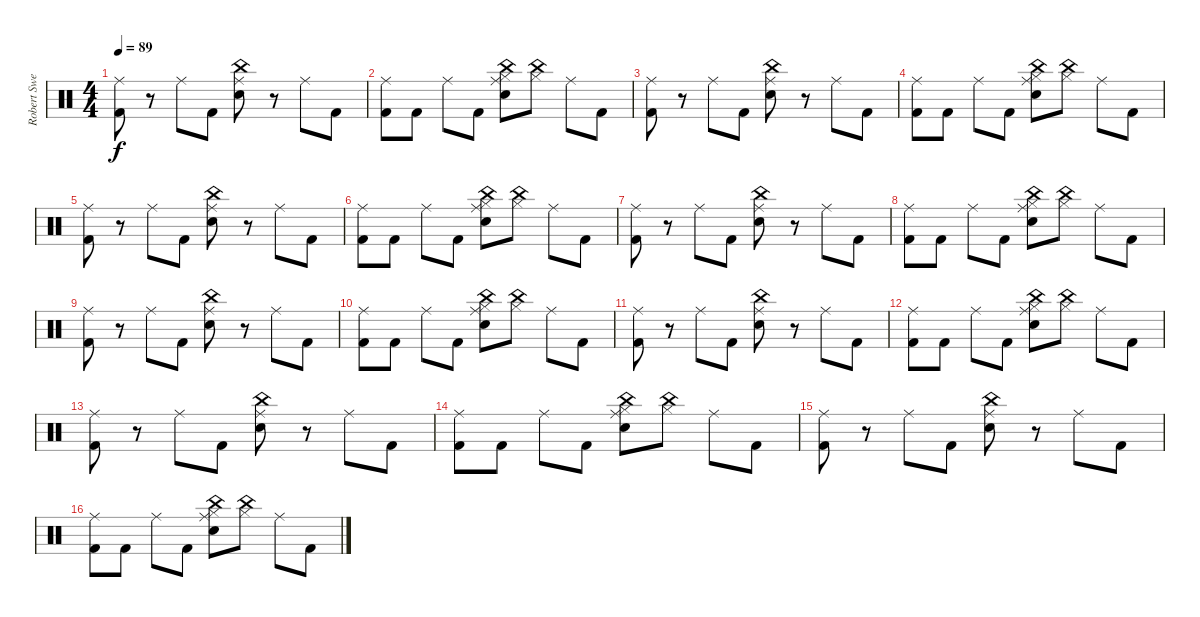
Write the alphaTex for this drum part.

\track ("Robert Sweet" "Robert Swe") {instrument percussion}
\staff {score}
\articulation defaults
\ts (4 4)
\tempo 89
\clef neutral
\ks c
("Ride (middle)" "Kick (hit) 2").8{dy f} r.8 "Ride (middle)".8 "Kick (hit) 2".8 ("Ride (middle)" "China (hit)" "Electric Snare (hit)").8 r.8 "Ride (middle)".8 "Kick (hit) 2".8 |
("Ride (middle)" "Kick (hit) 2").8 "Kick (hit) 2".8 "Ride (middle)".8 "Kick (hit) 2".8 ("Ride (middle)" "China (hit)" "Hi-Hat (closed)" "Electric Snare (hit)").8 ("China (hit)" "Hi-Hat (closed)").8 "Ride (middle)".8 "Kick (hit) 2".8 |
("Ride (middle)" "Kick (hit) 2").8 r.8 "Ride (middle)".8 "Kick (hit) 2".8 ("Ride (middle)" "China (hit)" "Electric Snare (hit)").8 r.8 "Ride (middle)".8 "Kick (hit) 2".8 |
("Ride (middle)" "Kick (hit) 2").8 "Kick (hit) 2".8 "Ride (middle)".8 "Kick (hit) 2".8 ("Ride (middle)" "China (hit)" "Hi-Hat (closed)" "Electric Snare (hit)").8 ("China (hit)" "Hi-Hat (closed)").8 "Ride (middle)".8 "Kick (hit) 2".8 |
("Ride (middle)" "Kick (hit) 2").8 r.8 "Ride (middle)".8 "Kick (hit) 2".8 ("Ride (middle)" "China (hit)" "Electric Snare (hit)").8 r.8 "Ride (middle)".8 "Kick (hit) 2".8 |
("Ride (middle)" "Kick (hit) 2").8 "Kick (hit) 2".8 "Ride (middle)".8 "Kick (hit) 2".8 ("Ride (middle)" "China (hit)" "Hi-Hat (closed)" "Electric Snare (hit)").8 ("China (hit)" "Hi-Hat (closed)").8 "Ride (middle)".8 "Kick (hit) 2".8 |
("Ride (middle)" "Kick (hit) 2").8 r.8 "Ride (middle)".8 "Kick (hit) 2".8 ("Ride (middle)" "China (hit)" "Electric Snare (hit)").8 r.8 "Ride (middle)".8 "Kick (hit) 2".8 |
("Ride (middle)" "Kick (hit) 2").8 "Kick (hit) 2".8 "Ride (middle)".8 "Kick (hit) 2".8 ("Ride (middle)" "China (hit)" "Hi-Hat (closed)" "Electric Snare (hit)").8 ("China (hit)" "Hi-Hat (closed)").8 "Ride (middle)".8 "Kick (hit) 2".8 |
("Ride (middle)" "Kick (hit) 2").8 r.8 "Ride (middle)".8 "Kick (hit) 2".8 ("Ride (middle)" "China (hit)" "Electric Snare (hit)").8 r.8 "Ride (middle)".8 "Kick (hit) 2".8 |
("Ride (middle)" "Kick (hit) 2").8 "Kick (hit) 2".8 "Ride (middle)".8 "Kick (hit) 2".8 ("Ride (middle)" "China (hit)" "Hi-Hat (closed)" "Electric Snare (hit)").8 ("China (hit)" "Hi-Hat (closed)").8 "Ride (middle)".8 "Kick (hit) 2".8 |
("Ride (middle)" "Kick (hit) 2").8 r.8 "Ride (middle)".8 "Kick (hit) 2".8 ("Ride (middle)" "China (hit)" "Electric Snare (hit)").8 r.8 "Ride (middle)".8 "Kick (hit) 2".8 |
("Ride (middle)" "Kick (hit) 2").8 "Kick (hit) 2".8 "Ride (middle)".8 "Kick (hit) 2".8 ("Ride (middle)" "China (hit)" "Hi-Hat (closed)" "Electric Snare (hit)").8 ("China (hit)" "Hi-Hat (closed)").8 "Ride (middle)".8 "Kick (hit) 2".8 |
("Ride (middle)" "Kick (hit) 2").8 r.8 "Ride (middle)".8 "Kick (hit) 2".8 ("Ride (middle)" "China (hit)" "Electric Snare (hit)").8 r.8 "Ride (middle)".8 "Kick (hit) 2".8 |
("Ride (middle)" "Kick (hit) 2").8 "Kick (hit) 2".8 "Ride (middle)".8 "Kick (hit) 2".8 ("Ride (middle)" "China (hit)" "Hi-Hat (closed)" "Electric Snare (hit)").8 ("China (hit)" "Hi-Hat (closed)").8 "Ride (middle)".8 "Kick (hit) 2".8 |
("Ride (middle)" "Kick (hit) 2").8 r.8 "Ride (middle)".8 "Kick (hit) 2".8 ("Ride (middle)" "China (hit)" "Electric Snare (hit)").8 r.8 "Ride (middle)".8 "Kick (hit) 2".8 |
("Ride (middle)" "Kick (hit) 2").8 "Kick (hit) 2".8 "Ride (middle)".8 "Kick (hit) 2".8 ("Ride (middle)" "China (hit)" "Hi-Hat (closed)" "Electric Snare (hit)").8 ("China (hit)" "Hi-Hat (closed)").8 "Ride (middle)".8 "Kick (hit) 2".8
